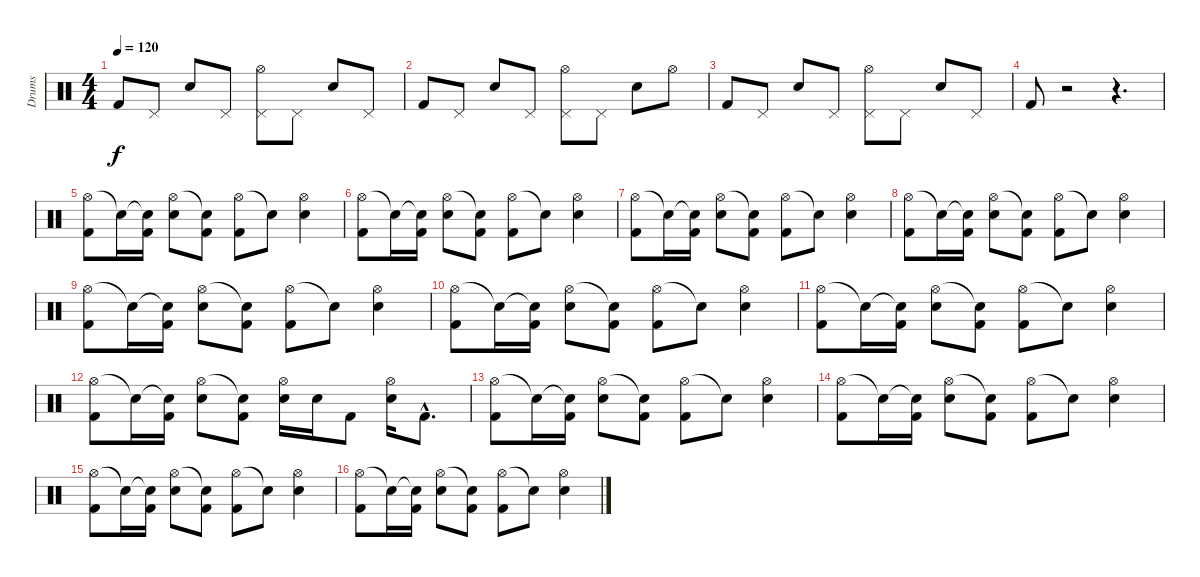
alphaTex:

\track ("Drums" "Drums") {instrument percussion}
\staff {score}
\articulation defaults
\ts (4 4)
\tempo 120
\clef neutral
\ks c "Kick (hit) 2".8{dy f} "Pedal Hi-Hat (hit)".8 "Snare (hit) 2".8 "Pedal Hi-Hat (hit)".8
("Pedal Hi-Hat (hit)" "Hi-Hat (open)").8 "Pedal Hi-Hat (hit)".8 "Snare (hit) 2".8 "Pedal Hi-Hat (hit)".8 |
"Kick (hit) 2".8 "Pedal Hi-Hat (hit)".8 "Snare (hit) 2".8 "Pedal Hi-Hat (hit)".8 ("Pedal Hi-Hat (hit)" "Hi-Hat (open)").8 "Pedal Hi-Hat (hit)".8 "Snare (hit) 2".8 "Hi-Hat (open)".8 |
"Kick (hit) 2".8 "Pedal Hi-Hat (hit)".8 "Snare (hit) 2".8 "Pedal Hi-Hat (hit)".8 ("Pedal Hi-Hat (hit)" "Hi-Hat (open)").8 "Pedal Hi-Hat (hit)".8 "Snare (hit) 2".8 "Pedal Hi-Hat (hit)".8 |
"Kick (hit) 2".8 r.2 r.4{d} |
("Hi-Hat (open)" "Kick (hit) 2").8 "Snare (hit)"{t}.16 ("Snare (hit)"{t} "Kick (hit) 2").16 ("Hi-Hat (open)" "Snare (hit) 2").8 ("Snare (hit)"{t} "Kick (hit) 2").8 ("Hi-Hat (open)" "Kick (hit) 2").8 "Snare (hit)"{t}.8 ("Hi-Hat (open)" "Snare (hit) 2").4 |
("Hi-Hat (open)" "Kick (hit) 2").8 "Snare (hit)"{t}.16 ("Snare (hit)"{t} "Kick (hit) 2").16 ("Hi-Hat (open)" "Snare (hit) 2").8 ("Snare (hit)"{t} "Kick (hit) 2").8 ("Hi-Hat (open)" "Kick (hit) 2").8 "Snare (hit)"{t}.8 ("Hi-Hat (open)" "Snare (hit) 2").4 |
("Hi-Hat (open)" "Kick (hit) 2").8 "Snare (hit)"{t}.16 ("Snare (hit)"{t} "Kick (hit) 2").16 ("Hi-Hat (open)" "Snare (hit) 2").8 ("Snare (hit)"{t} "Kick (hit) 2").8 ("Hi-Hat (open)" "Kick (hit) 2").8 "Snare (hit)"{t}.8 ("Hi-Hat (open)" "Snare (hit) 2").4 |
("Hi-Hat (open)" "Kick (hit) 2").8 "Snare (hit)"{t}.16 ("Snare (hit)"{t} "Kick (hit) 2").16 ("Hi-Hat (open)" "Snare (hit) 2").8 ("Snare (hit)"{t} "Kick (hit) 2").8 ("Hi-Hat (open)" "Kick (hit) 2").8 "Snare (hit)"{t}.8 ("Hi-Hat (open)" "Snare (hit) 2").4 |
("Hi-Hat (open)" "Kick (hit) 2").8 "Snare (hit)"{t}.16 ("Snare (hit)"{t} "Kick (hit) 2").16 ("Hi-Hat (open)" "Snare (hit) 2").8 ("Snare (hit)"{t} "Kick (hit) 2").8 ("Hi-Hat (open)" "Kick (hit) 2").8 "Snare (hit)"{t}.8 ("Hi-Hat (open)" "Snare (hit) 2").4 |
("Hi-Hat (open)" "Kick (hit) 2").8 "Snare (hit)"{t}.16 ("Snare (hit)"{t} "Kick (hit) 2").16 ("Hi-Hat (open)" "Snare (hit) 2").8 ("Snare (hit)"{t} "Kick (hit) 2").8 ("Hi-Hat (open)" "Kick (hit) 2").8 "Snare (hit)"{t}.8 ("Hi-Hat (open)" "Snare (hit) 2").4 |
("Hi-Hat (open)" "Kick (hit) 2").8 "Snare (hit)"{t}.16 ("Snare (hit)"{t} "Kick (hit) 2").16 ("Hi-Hat (open)" "Snare (hit) 2").8 ("Snare (hit)"{t} "Kick (hit) 2").8 ("Hi-Hat (open)" "Kick (hit) 2").8 "Snare (hit)"{t}.8 ("Hi-Hat (open)" "Snare (hit) 2").4 |
("Hi-Hat (open)" "Kick (hit) 2").8 "Snare (hit)"{t}.16 ("Snare (hit)"{t} "Kick (hit) 2").16 ("Hi-Hat (open)" "Snare (hit) 2").8 ("Snare (hit)"{t} "Kick (hit) 2").8 ("Hi-Hat (open)" "Snare (hit) 2").16 "Snare (hit) 2".16 "Kick (hit) 2".8 ("Hi-Hat (open)" "Snare (hit) 2").16 "Kick (hit) 2"{hac}.8{d} |
("Hi-Hat (open)" "Kick (hit) 2").8 "Snare (hit)"{t}.16 ("Snare (hit)"{t} "Kick (hit) 2").16 ("Hi-Hat (open)" "Snare (hit) 2").8 ("Snare (hit)"{t} "Kick (hit) 2").8 ("Hi-Hat (open)" "Kick (hit) 2").8 "Snare (hit)"{t}.8 ("Hi-Hat (open)" "Snare (hit) 2").4 |
("Hi-Hat (open)" "Kick (hit) 2").8 "Snare (hit)"{t}.16 ("Snare (hit)"{t} "Kick (hit) 2").16 ("Hi-Hat (open)" "Snare (hit) 2").8 ("Snare (hit)"{t} "Kick (hit) 2").8 ("Hi-Hat (open)" "Kick (hit) 2").8 "Snare (hit)"{t}.8 ("Hi-Hat (open)" "Snare (hit) 2").4 |
("Hi-Hat (open)" "Kick (hit) 2").8 "Snare (hit)"{t}.16 ("Snare (hit)"{t} "Kick (hit) 2").16 ("Hi-Hat (open)" "Snare (hit) 2").8 ("Snare (hit)"{t} "Kick (hit) 2").8 ("Hi-Hat (open)" "Kick (hit) 2").8 "Snare (hit)"{t}.8 ("Hi-Hat (open)" "Snare (hit) 2").4 |
("Hi-Hat (open)" "Kick (hit) 2").8 "Snare (hit)"{t}.16 ("Snare (hit)"{t} "Kick (hit) 2").16 ("Hi-Hat (open)" "Snare (hit) 2").8 ("Snare (hit)"{t} "Kick (hit) 2").8 ("Hi-Hat (open)" "Kick (hit) 2").8 "Snare (hit)"{t}.8 ("Hi-Hat (open)" "Snare (hit) 2").4
